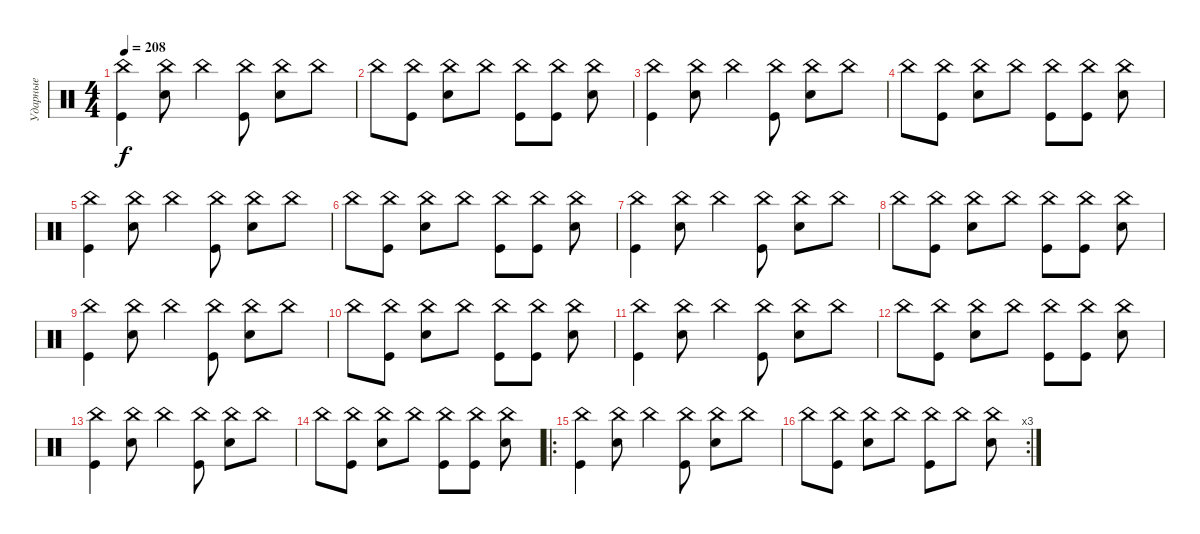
\track ("Ударные" "Ударные") {instrument percussion}
\staff {score}
\articulation defaults
\ts (4 4)
\tempo 208
\clef neutral
\ks c
("Kick (hit)" "China (hit)").4{dy f} ("Snare (hit) 2" "China (hit)").8 "China (hit)".4 ("Kick (hit)" "China (hit)").8 ("Snare (hit) 2" "China (hit)").8 "China (hit)".8 |
"China (hit)".8 ("Kick (hit)" "China (hit)").8 ("Snare (hit) 2" "China (hit)").8 "China (hit)".8 ("Kick (hit)" "China (hit)").8 ("Kick (hit)" "China (hit)").8 ("Snare (hit) 2" "China (hit)").8 |
("Kick (hit)" "China (hit)").4 ("Snare (hit) 2" "China (hit)").8 "China (hit)".4 ("Kick (hit)" "China (hit)").8 ("Snare (hit) 2" "China (hit)").8 "China (hit)".8 |
"China (hit)".8 ("Kick (hit)" "China (hit)").8 ("Snare (hit) 2" "China (hit)").8 "China (hit)".8 ("Kick (hit)" "China (hit)").8 ("Kick (hit)" "China (hit)").8 ("Snare (hit) 2" "China (hit)").8 |
("Kick (hit)" "China (hit)").4 ("Snare (hit) 2" "China (hit)").8 "China (hit)".4 ("Kick (hit)" "China (hit)").8 ("Snare (hit) 2" "China (hit)").8 "China (hit)".8 |
"China (hit)".8 ("Kick (hit)" "China (hit)").8 ("Snare (hit) 2" "China (hit)").8 "China (hit)".8 ("Kick (hit)" "China (hit)").8 ("Kick (hit)" "China (hit)").8 ("Snare (hit) 2" "China (hit)").8 |
("Kick (hit)" "China (hit)").4 ("Snare (hit) 2" "China (hit)").8 "China (hit)".4 ("Kick (hit)" "China (hit)").8 ("Snare (hit) 2" "China (hit)").8 "China (hit)".8 |
"China (hit)".8 ("Kick (hit)" "China (hit)").8 ("Snare (hit) 2" "China (hit)").8 "China (hit)".8 ("Kick (hit)" "China (hit)").8 ("Kick (hit)" "China (hit)").8 ("Snare (hit) 2" "China (hit)").8 |
("Kick (hit)" "China (hit)").4 ("Snare (hit) 2" "China (hit)").8 "China (hit)".4 ("Kick (hit)" "China (hit)").8 ("Snare (hit) 2" "China (hit)").8 "China (hit)".8 |
"China (hit)".8 ("Kick (hit)" "China (hit)").8 ("Snare (hit) 2" "China (hit)").8 "China (hit)".8 ("Kick (hit)" "China (hit)").8 ("Kick (hit)" "China (hit)").8 ("Snare (hit) 2" "China (hit)").8 |
("Kick (hit)" "China (hit)").4 ("Snare (hit) 2" "China (hit)").8 "China (hit)".4 ("Kick (hit)" "China (hit)").8 ("Snare (hit) 2" "China (hit)").8 "China (hit)".8 |
"China (hit)".8 ("Kick (hit)" "China (hit)").8 ("Snare (hit) 2" "China (hit)").8 "China (hit)".8 ("Kick (hit)" "China (hit)").8 ("Kick (hit)" "China (hit)").8 ("Snare (hit) 2" "China (hit)").8 |
("Kick (hit)" "China (hit)").4 ("Snare (hit) 2" "China (hit)").8 "China (hit)".4 ("Kick (hit)" "China (hit)").8 ("Snare (hit) 2" "China (hit)").8 "China (hit)".8 |
"China (hit)".8 ("Kick (hit)" "China (hit)").8 ("Snare (hit) 2" "China (hit)").8 "China (hit)".8 ("Kick (hit)" "China (hit)").8 ("Kick (hit)" "China (hit)").8 ("Snare (hit) 2" "China (hit)").8 |
\ro
("Kick (hit)" "China (hit)").4 ("Snare (hit) 2" "China (hit)").8 "China (hit)".4 ("Kick (hit)" "China (hit)").8 ("Snare (hit) 2" "China (hit)").8 "China (hit)".8 |
\rc 3 "China (hit)".8
("Kick (hit)" "China (hit)").8 ("Snare (hit) 2" "China (hit)").8 "China (hit)".8 ("Kick (hit)" "China (hit)").8 "China (hit)".8 ("Snare (hit) 2" "China (hit)").8
